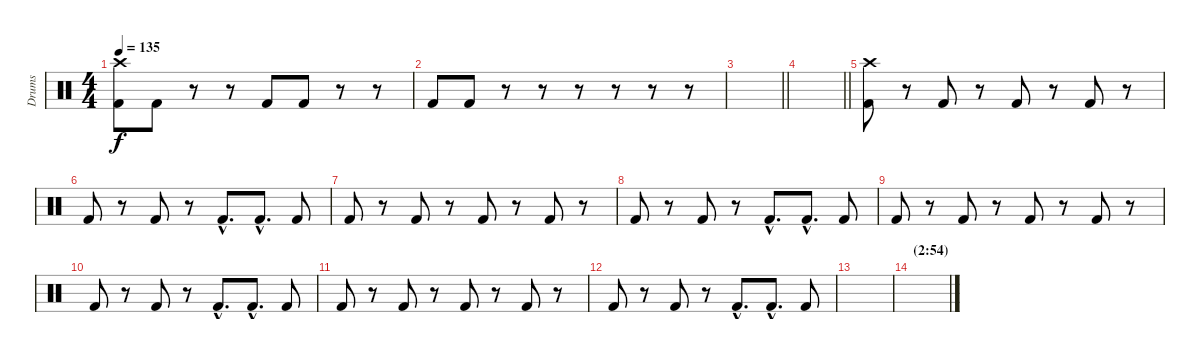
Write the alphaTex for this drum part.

\track ("Drums" "Drums") {instrument percussion}
\staff {score}
\articulation defaults
\ts (4 4)
\tempo 135
\clef neutral
\ks c
("Crash high (hit)" "Kick (hit) 2").8{dy f} "Kick (hit) 2".8 r.8 r.8 "Kick (hit) 2".8 "Kick (hit) 2".8 r.8 r.8 |
"Kick (hit) 2".8 "Kick (hit) 2".8 r.8 r.8 r.8 r.8 r.8 r.8 |
\barLineRight lightlight
|
\barLineRight lightlight
|
("Crash high (hit)" "Kick (hit) 2").8 r.8 "Kick (hit) 2".8 r.8 "Kick (hit) 2".8 r.8 "Kick (hit) 2".8 r.8 |
"Kick (hit) 2".8 r.8 "Kick (hit) 2".8 r.8 "Kick (hit) 2"{hac}.8{d} "Kick (hit) 2"{hac}.8{d} "Kick (hit) 2".8 |
"Kick (hit) 2".8 r.8 "Kick (hit) 2".8 r.8 "Kick (hit) 2".8 r.8 "Kick (hit) 2".8 r.8 |
"Kick (hit) 2".8 r.8 "Kick (hit) 2".8 r.8 "Kick (hit) 2"{hac}.8{d} "Kick (hit) 2"{hac}.8{d} "Kick (hit) 2".8 |
"Kick (hit) 2".8 r.8 "Kick (hit) 2".8 r.8 "Kick (hit) 2".8 r.8 "Kick (hit) 2".8 r.8 |
"Kick (hit) 2".8 r.8 "Kick (hit) 2".8 r.8 "Kick (hit) 2"{hac}.8{d} "Kick (hit) 2"{hac}.8{d} "Kick (hit) 2".8 |
"Kick (hit) 2".8 r.8 "Kick (hit) 2".8 r.8 "Kick (hit) 2".8 r.8 "Kick (hit) 2".8 r.8 |
"Kick (hit) 2".8 r.8 "Kick (hit) 2".8 r.8 "Kick (hit) 2"{hac}.8{d} "Kick (hit) 2"{hac}.8{d} "Kick (hit) 2".8 |
|
\section ("" "(2:54)")
